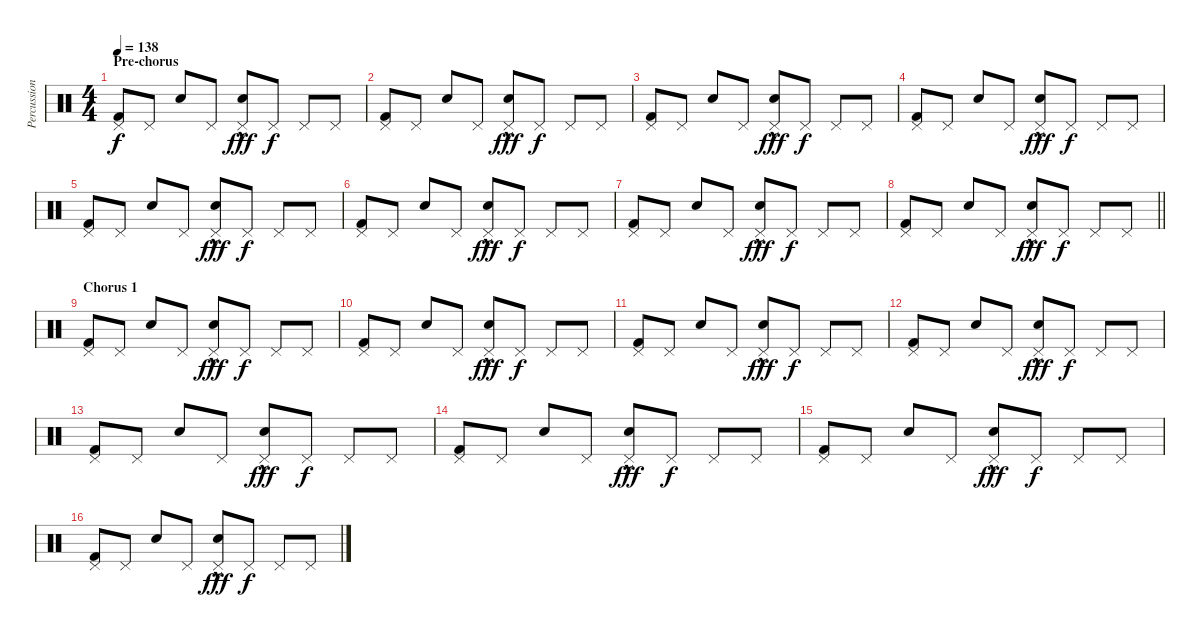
\track ("Percussion" "Percussion") {instrument percussion}
\staff {score}
\articulation defaults
\ts (4 4)
\section ("" "Pre-chorus")
\tempo 138
\clef neutral
\ks c
("Kick (hit) 2" "Pedal Hi-Hat (hit)").8{dy f} "Pedal Hi-Hat (hit)".8 "Snare (hit)".8 "Pedal Hi-Hat (hit)".8 ("Snare (hit) 2"{hac} "Pedal Hi-Hat (hit)").8{dy fff} "Pedal Hi-Hat (hit)".8{dy f} "Pedal Hi-Hat (hit)".8 "Pedal Hi-Hat (hit)".8 |
("Kick (hit) 2" "Pedal Hi-Hat (hit)").8 "Pedal Hi-Hat (hit)".8 "Snare (hit)".8 "Pedal Hi-Hat (hit)".8 ("Snare (hit) 2"{hac} "Pedal Hi-Hat (hit)").8{dy fff} "Pedal Hi-Hat (hit)".8{dy f} "Pedal Hi-Hat (hit)".8 "Pedal Hi-Hat (hit)".8 |
("Kick (hit) 2" "Pedal Hi-Hat (hit)").8 "Pedal Hi-Hat (hit)".8 "Snare (hit)".8 "Pedal Hi-Hat (hit)".8 ("Snare (hit) 2"{hac} "Pedal Hi-Hat (hit)").8{dy fff} "Pedal Hi-Hat (hit)".8{dy f} "Pedal Hi-Hat (hit)".8 "Pedal Hi-Hat (hit)".8 |
("Kick (hit) 2" "Pedal Hi-Hat (hit)").8 "Pedal Hi-Hat (hit)".8 "Snare (hit)".8 "Pedal Hi-Hat (hit)".8 ("Snare (hit) 2"{hac} "Pedal Hi-Hat (hit)").8{dy fff} "Pedal Hi-Hat (hit)".8{dy f} "Pedal Hi-Hat (hit)".8 "Pedal Hi-Hat (hit)".8 |
("Kick (hit) 2" "Pedal Hi-Hat (hit)").8 "Pedal Hi-Hat (hit)".8 "Snare (hit)".8 "Pedal Hi-Hat (hit)".8 ("Snare (hit) 2"{hac} "Pedal Hi-Hat (hit)").8{dy fff} "Pedal Hi-Hat (hit)".8{dy f} "Pedal Hi-Hat (hit)".8 "Pedal Hi-Hat (hit)".8 |
("Kick (hit) 2" "Pedal Hi-Hat (hit)").8 "Pedal Hi-Hat (hit)".8 "Snare (hit)".8 "Pedal Hi-Hat (hit)".8 ("Snare (hit) 2"{hac} "Pedal Hi-Hat (hit)").8{dy fff} "Pedal Hi-Hat (hit)".8{dy f} "Pedal Hi-Hat (hit)".8 "Pedal Hi-Hat (hit)".8 |
("Kick (hit) 2" "Pedal Hi-Hat (hit)").8 "Pedal Hi-Hat (hit)".8 "Snare (hit)".8 "Pedal Hi-Hat (hit)".8 ("Snare (hit) 2"{hac} "Pedal Hi-Hat (hit)").8{dy fff} "Pedal Hi-Hat (hit)".8{dy f} "Pedal Hi-Hat (hit)".8 "Pedal Hi-Hat (hit)".8 |
\barLineRight lightlight
("Kick (hit) 2" "Pedal Hi-Hat (hit)").8 "Pedal Hi-Hat (hit)".8 "Snare (hit)".8 "Pedal Hi-Hat (hit)".8 ("Snare (hit) 2"{hac} "Pedal Hi-Hat (hit)").8{dy fff} "Pedal Hi-Hat (hit)".8{dy f} "Pedal Hi-Hat (hit)".8 "Pedal Hi-Hat (hit)".8 |
\section ("" "Chorus 1")
("Kick (hit) 2" "Pedal Hi-Hat (hit)").8 "Pedal Hi-Hat (hit)".8 "Snare (hit)".8 "Pedal Hi-Hat (hit)".8 ("Snare (hit) 2"{hac} "Pedal Hi-Hat (hit)").8{dy fff} "Pedal Hi-Hat (hit)".8{dy f} "Pedal Hi-Hat (hit)".8 "Pedal Hi-Hat (hit)".8 |
("Kick (hit) 2" "Pedal Hi-Hat (hit)").8 "Pedal Hi-Hat (hit)".8 "Snare (hit)".8 "Pedal Hi-Hat (hit)".8 ("Snare (hit) 2"{hac} "Pedal Hi-Hat (hit)").8{dy fff} "Pedal Hi-Hat (hit)".8{dy f} "Pedal Hi-Hat (hit)".8 "Pedal Hi-Hat (hit)".8 |
("Kick (hit) 2" "Pedal Hi-Hat (hit)").8 "Pedal Hi-Hat (hit)".8 "Snare (hit)".8 "Pedal Hi-Hat (hit)".8 ("Snare (hit) 2"{hac} "Pedal Hi-Hat (hit)").8{dy fff} "Pedal Hi-Hat (hit)".8{dy f} "Pedal Hi-Hat (hit)".8 "Pedal Hi-Hat (hit)".8 |
("Kick (hit) 2" "Pedal Hi-Hat (hit)").8 "Pedal Hi-Hat (hit)".8 "Snare (hit)".8 "Pedal Hi-Hat (hit)".8 ("Snare (hit) 2"{hac} "Pedal Hi-Hat (hit)").8{dy fff} "Pedal Hi-Hat (hit)".8{dy f} "Pedal Hi-Hat (hit)".8 "Pedal Hi-Hat (hit)".8 |
("Kick (hit) 2" "Pedal Hi-Hat (hit)").8 "Pedal Hi-Hat (hit)".8 "Snare (hit)".8 "Pedal Hi-Hat (hit)".8 ("Snare (hit) 2"{hac} "Pedal Hi-Hat (hit)").8{dy fff} "Pedal Hi-Hat (hit)".8{dy f} "Pedal Hi-Hat (hit)".8 "Pedal Hi-Hat (hit)".8 |
("Kick (hit) 2" "Pedal Hi-Hat (hit)").8 "Pedal Hi-Hat (hit)".8 "Snare (hit)".8 "Pedal Hi-Hat (hit)".8 ("Snare (hit) 2"{hac} "Pedal Hi-Hat (hit)").8{dy fff} "Pedal Hi-Hat (hit)".8{dy f} "Pedal Hi-Hat (hit)".8 "Pedal Hi-Hat (hit)".8 |
("Kick (hit) 2" "Pedal Hi-Hat (hit)").8 "Pedal Hi-Hat (hit)".8 "Snare (hit)".8 "Pedal Hi-Hat (hit)".8 ("Snare (hit) 2"{hac} "Pedal Hi-Hat (hit)").8{dy fff} "Pedal Hi-Hat (hit)".8{dy f} "Pedal Hi-Hat (hit)".8 "Pedal Hi-Hat (hit)".8 |
("Kick (hit) 2" "Pedal Hi-Hat (hit)").8 "Pedal Hi-Hat (hit)".8 "Snare (hit)".8 "Pedal Hi-Hat (hit)".8 ("Snare (hit) 2"{hac} "Pedal Hi-Hat (hit)").8{dy fff} "Pedal Hi-Hat (hit)".8{dy f} "Pedal Hi-Hat (hit)".8 "Pedal Hi-Hat (hit)".8
